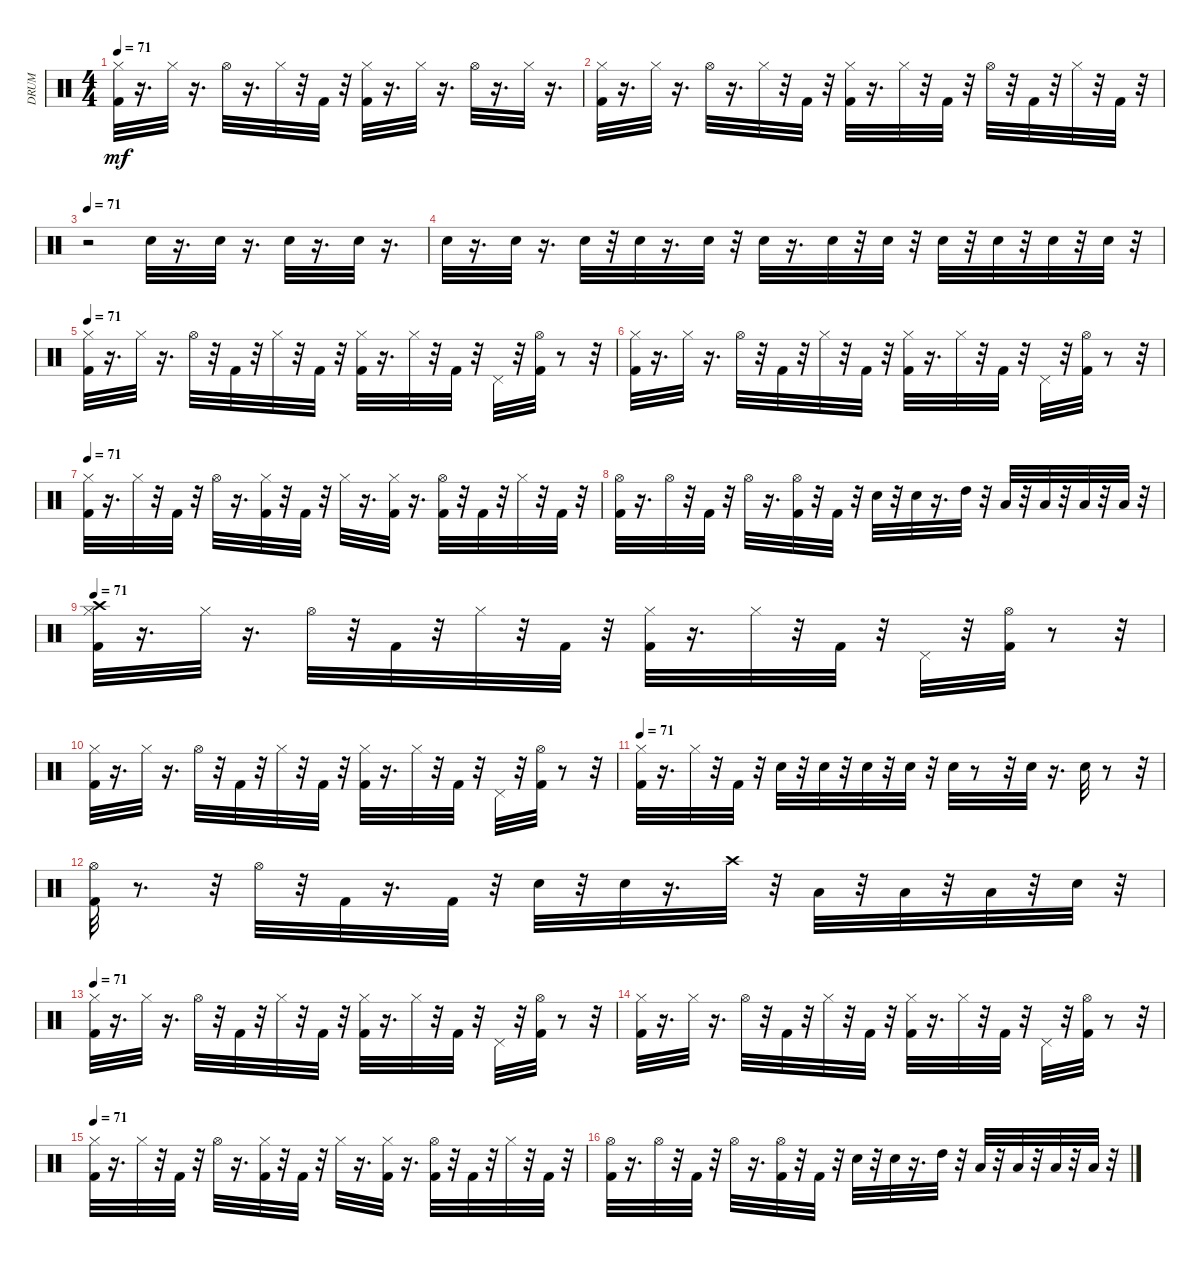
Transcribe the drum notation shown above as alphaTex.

\track ("DRUM" "DRUM") {instrument percussion}
\staff {score}
\articulation defaults
\ts (4 4)
\tempo 71
\clef neutral
\ks c
("Kick (hit) 2" "Hi-Hat (closed)").32{dy mf} r.16{d} "Hi-Hat (closed)".32 r.16{d} "Hi-Hat (open)".32 r.16{d} "Hi-Hat (closed)".32 r.32 "Kick (hit) 2".32 r.32 ("Kick (hit) 2" "Hi-Hat (closed)").32 r.16{d} "Hi-Hat (closed)".32 r.16{d} "Hi-Hat (open)".32 r.16{d} "Hi-Hat (closed)".32 r.16{d} |
("Kick (hit) 2" "Hi-Hat (closed)").32 r.16{d} "Hi-Hat (closed)".32 r.16{d} "Hi-Hat (open)".32 r.16{d} "Hi-Hat (closed)".32 r.32 "Kick (hit) 2".32 r.32 ("Kick (hit) 2" "Hi-Hat (closed)").32 r.16{d} "Hi-Hat (closed)".32 r.32 "Kick (hit) 2".32 r.32 "Hi-Hat (open)".32 r.32 "Kick (hit) 2".32 r.32 "Hi-Hat (closed)".32 r.32 "Kick (hit) 2".32 r.32 |
\tempo 71
r.2 "Snare (hit) 2".32 r.16{d} "Snare (hit) 2".32 r.16{d} "Snare (hit) 2".32 r.16{d} "Snare (hit) 2".32 r.16{d} |
"Snare (hit) 2".32 r.16{d} "Snare (hit) 2".32 r.16{d} "Snare (hit) 2".32 r.32 "Snare (hit) 2".32 r.16{d} "Snare (hit) 2".32 r.32 "Snare (hit) 2".32 r.16{d} "Snare (hit) 2".32 r.32 "Snare (hit) 2".32 r.32 "Snare (hit) 2".32 r.32 "Snare (hit) 2".32 r.32 "Snare (hit) 2".32 r.32 "Snare (hit) 2".32 r.32 |
\tempo 71
("Kick (hit) 2" "Hi-Hat (closed)").32 r.16{d} "Hi-Hat (closed)".32 r.16{d} "Hi-Hat (open)".32 r.32 "Kick (hit) 2".32 r.32 "Hi-Hat (closed)".32 r.32 "Kick (hit) 2".32 r.32 ("Kick (hit) 2" "Hi-Hat (closed)").32 r.16{d} "Hi-Hat (closed)".32 r.32 "Kick (hit) 2".32 r.32 "Pedal Hi-Hat (hit)".32 r.32 ("Kick (hit) 2" "Hi-Hat (open)").32 r.8 r.32 |
("Kick (hit) 2" "Hi-Hat (closed)").32 r.16{d} "Hi-Hat (closed)".32 r.16{d} "Hi-Hat (open)".32 r.32 "Kick (hit) 2".32 r.32 "Hi-Hat (closed)".32 r.32 "Kick (hit) 2".32 r.32 ("Kick (hit) 2" "Hi-Hat (closed)").32 r.16{d} "Hi-Hat (closed)".32 r.32 "Kick (hit) 2".32 r.32 "Pedal Hi-Hat (hit)".32 r.32 ("Kick (hit) 2" "Hi-Hat (open)").32 r.8 r.32 |
\tempo 71
("Kick (hit) 2" "Hi-Hat (closed)").32 r.16{d} "Hi-Hat (closed)".32 r.32 "Kick (hit) 2".32 r.32 "Hi-Hat (open)".32 r.16{d} ("Kick (hit) 2" "Hi-Hat (closed)").32 r.32 "Kick (hit) 2".32 r.32 "Hi-Hat (closed)".32 r.16{d} ("Kick (hit) 2" "Hi-Hat (closed)").32 r.16{d} ("Kick (hit) 2" "Hi-Hat (open)").32 r.32 "Kick (hit) 2".32 r.32 "Hi-Hat (closed)".32 r.32 "Kick (hit) 2".32 r.32 |
("Kick (hit) 2" "Hi-Hat (open)").32 r.16{d} "Hi-Hat (open)".32 r.32 "Kick (hit) 2".32 r.32 "Hi-Hat (open)".32 r.16{d} ("Kick (hit) 2" "Hi-Hat (open)").32 r.32 "Kick (hit) 2".32 r.32 "Snare (hit) 2".32 r.32 "Snare (hit) 2".32 r.16{d} "High Tom (hit)".32 r.32 "Low Tom (hit)".32 r.32 "Low Tom (hit)".32 r.32 "Low Floor Tom (hit)".32 r.32 "Low Floor Tom (hit)".32 r.32 |
\tempo 71
("Kick (hit) 2" "Hi-Hat (closed)" "Crash high (hit)").32 r.16{d} "Hi-Hat (closed)".32 r.16{d} "Hi-Hat (open)".32 r.32 "Kick (hit) 2".32 r.32 "Hi-Hat (closed)".32 r.32 "Kick (hit) 2".32 r.32 ("Kick (hit) 2" "Hi-Hat (closed)").32 r.16{d} "Hi-Hat (closed)".32 r.32 "Kick (hit) 2".32 r.32 "Pedal Hi-Hat (hit)".32 r.32 ("Kick (hit) 2" "Hi-Hat (open)").32 r.8 r.32 |
("Kick (hit) 2" "Hi-Hat (closed)").32 r.16{d} "Hi-Hat (closed)".32 r.16{d} "Hi-Hat (open)".32 r.32 "Kick (hit) 2".32 r.32 "Hi-Hat (closed)".32 r.32 "Kick (hit) 2".32 r.32 ("Kick (hit) 2" "Hi-Hat (closed)").32 r.16{d} "Hi-Hat (closed)".32 r.32 "Kick (hit) 2".32 r.32 "Pedal Hi-Hat (hit)".32 r.32 ("Kick (hit) 2" "Hi-Hat (open)").32 r.8 r.32 |
\tempo 71
("Kick (hit) 2" "Hi-Hat (closed)").32 r.16{d} "Hi-Hat (closed)".32 r.32 "Kick (hit) 2".32 r.32 "Snare (hit) 2".32 r.32 "Snare (hit) 2".32 r.32 "Snare (hit) 2".32 r.32 "Snare (hit) 2".32 r.32 "Snare (hit) 2".32 r.8 r.32 "Snare (hit) 2".32 r.16{d} "Snare (hit) 2".32 r.8 r.32 |
("Kick (hit) 2" "Hi-Hat (open)").32 r.8{d} r.32 "Hi-Hat (open)".32 r.32 "Kick (hit) 2".32 r.16{d} "Kick (hit) 2".32 r.32 "Snare (hit) 2".32 r.32 "Snare (hit) 2".32 r.16{d} "Crash high (hit)".32 r.32 "Low Tom (hit)".32 r.32 "Low Tom (hit)".32 r.32 "Low Floor Tom (hit)".32 r.32 "Snare (hit) 2".32 r.32 |
\tempo 71
("Kick (hit) 2" "Hi-Hat (closed)").32 r.16{d} "Hi-Hat (closed)".32 r.16{d} "Hi-Hat (open)".32 r.32 "Kick (hit) 2".32 r.32 "Hi-Hat (closed)".32 r.32 "Kick (hit) 2".32 r.32 ("Kick (hit) 2" "Hi-Hat (closed)").32 r.16{d} "Hi-Hat (closed)".32 r.32 "Kick (hit) 2".32 r.32 "Pedal Hi-Hat (hit)".32 r.32 ("Kick (hit) 2" "Hi-Hat (open)").32 r.8 r.32 |
("Kick (hit) 2" "Hi-Hat (closed)").32 r.16{d} "Hi-Hat (closed)".32 r.16{d} "Hi-Hat (open)".32 r.32 "Kick (hit) 2".32 r.32 "Hi-Hat (closed)".32 r.32 "Kick (hit) 2".32 r.32 ("Kick (hit) 2" "Hi-Hat (closed)").32 r.16{d} "Hi-Hat (closed)".32 r.32 "Kick (hit) 2".32 r.32 "Pedal Hi-Hat (hit)".32 r.32 ("Kick (hit) 2" "Hi-Hat (open)").32 r.8 r.32 |
\tempo 71
("Kick (hit) 2" "Hi-Hat (closed)").32 r.16{d} "Hi-Hat (closed)".32 r.32 "Kick (hit) 2".32 r.32 "Hi-Hat (open)".32 r.16{d} ("Kick (hit) 2" "Hi-Hat (closed)").32 r.32 "Kick (hit) 2".32 r.32 "Hi-Hat (closed)".32 r.16{d} ("Kick (hit) 2" "Hi-Hat (closed)").32 r.16{d} ("Kick (hit) 2" "Hi-Hat (open)").32 r.32 "Kick (hit) 2".32 r.32 "Hi-Hat (closed)".32 r.32 "Kick (hit) 2".32 r.32 |
("Kick (hit) 2" "Hi-Hat (open)").32 r.16{d} "Hi-Hat (open)".32 r.32 "Kick (hit) 2".32 r.32 "Hi-Hat (open)".32 r.16{d} ("Kick (hit) 2" "Hi-Hat (open)").32 r.32 "Kick (hit) 2".32 r.32 "Snare (hit) 2".32 r.32 "Snare (hit) 2".32 r.16{d} "High Tom (hit)".32 r.32 "Low Tom (hit)".32 r.32 "Low Tom (hit)".32 r.32 "Low Floor Tom (hit)".32 r.32 "Low Floor Tom (hit)".32 r.32
